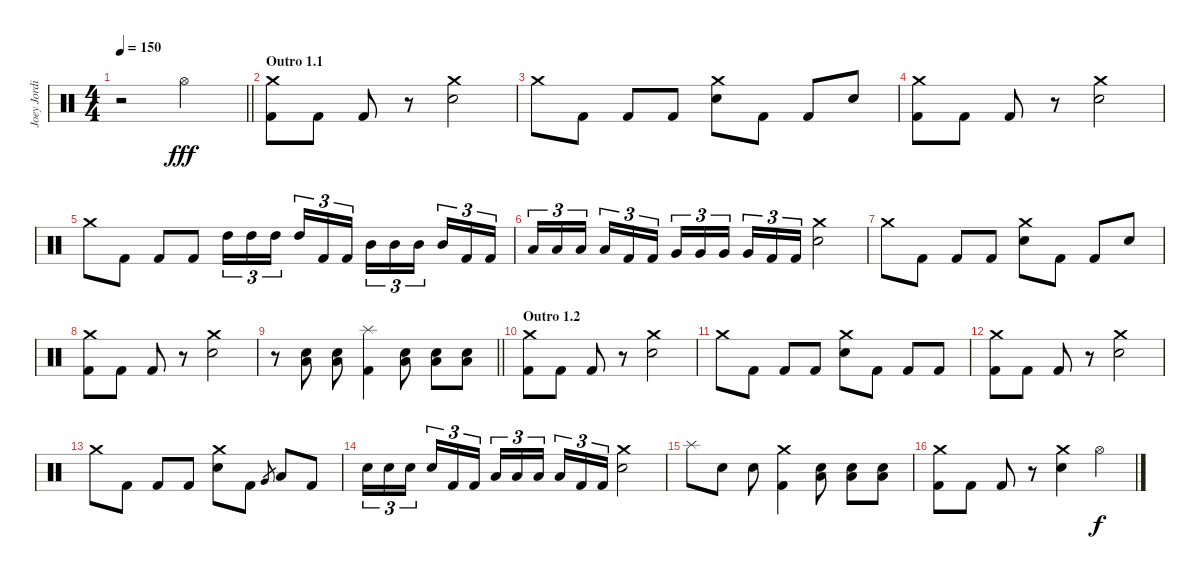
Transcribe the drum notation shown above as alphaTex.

\track ("Joey Jordison" "Joey Jordi") {instrument percussion}
\staff {score}
\articulation defaults
\ts (4 4)
\tempo 150
\clef neutral
\barLineRight lightlight
\ks c
r.2{dy fff} "Hi-Hat (open)".2 |
\section ("" "Outro 1.1")
("Crash medium (hit)" "Kick (hit) 2").8 "Kick (hit) 2".8 "Kick (hit) 2".8 r.8 ("Crash medium (hit)" "Electric Snare (hit)").2 |
"Crash medium (hit)".8 "Kick (hit) 2".8 "Kick (hit) 2".8 "Kick (hit) 2".8 ("Crash medium (hit)" "Electric Snare (hit)").8 "Kick (hit) 2".8 "Kick (hit) 2".8 "Electric Snare (hit)".8 |
("Crash medium (hit)" "Kick (hit) 2").8 "Kick (hit) 2".8 "Kick (hit) 2".8 r.8 ("Crash medium (hit)" "Electric Snare (hit)").2 |
"Crash medium (hit)".8 "Kick (hit) 2".8 "Kick (hit) 2".8 "Kick (hit) 2".8 "High Tom (hit)".16{tu (3 2)} "High Tom (hit)".16{tu (3 2)} "High Tom (hit)".16{tu (3 2) beam splitsecondary} "High Tom (hit)".16{tu (3 2)} "Kick (hit) 2".16{tu (3 2)} "Kick (hit) 2".16{tu (3 2)} "Mid Tom (hit)".16{tu (3 2)} "Mid Tom (hit)".16{tu (3 2)} "Mid Tom (hit)".16{tu (3 2) beam splitsecondary} "Mid Tom (hit)".16{tu (3 2)} "Kick (hit) 2".16{tu (3 2)} "Kick (hit) 2".16{tu (3 2)} |
"Low Tom (hit)".16{tu (3 2)} "Low Tom (hit)".16{tu (3 2)} "Low Tom (hit)".16{tu (3 2) beam splitsecondary} "Low Tom (hit)".16{tu (3 2)} "Kick (hit) 2".16{tu (3 2)} "Kick (hit) 2".16{tu (3 2)} "Very Low Tom (hit)".16{tu (3 2)} "Very Low Tom (hit)".16{tu (3 2)} "Very Low Tom (hit)".16{tu (3 2) beam splitsecondary} "Very Low Tom (hit)".16{tu (3 2)} "Kick (hit) 2".16{tu (3 2)} "Kick (hit) 2".16{tu (3 2)} ("Crash medium (hit)" "Electric Snare (hit)").2 |
"Crash medium (hit)".8 "Kick (hit) 2".8 "Kick (hit) 2".8 "Kick (hit) 2".8 ("Crash medium (hit)" "Electric Snare (hit)").8 "Kick (hit) 2".8 "Kick (hit) 2".8 "Electric Snare (hit)".8 |
("Crash medium (hit)" "Kick (hit) 2").8 "Kick (hit) 2".8 "Kick (hit) 2".8 r.8 ("Crash medium (hit)" "Electric Snare (hit)").2 |
\barLineRight lightlight
r.8 ("Electric Snare (hit)" "Low Floor Tom (hit)").8 ("Electric Snare (hit)" "Low Floor Tom (hit)").8 ("Splash (hit)" "Kick (hit) 2").4 ("Electric Snare (hit)" "Low Floor Tom (hit)").8 ("Electric Snare (hit)" "Low Floor Tom (hit)").8 ("Electric Snare (hit)" "Low Floor Tom (hit)").8 |
\section ("" "Outro 1.2")
("Crash medium (hit)" "Kick (hit) 2").8 "Kick (hit) 2".8 "Kick (hit) 2".8 r.8 ("Crash medium (hit)" "Electric Snare (hit)").2 |
"Crash medium (hit)".8 "Kick (hit) 2".8 "Kick (hit) 2".8 "Kick (hit) 2".8 ("Crash medium (hit)" "Electric Snare (hit)").8 "Kick (hit) 2".8 "Kick (hit) 2".8 "Kick (hit) 2".8 |
("Crash medium (hit)" "Kick (hit) 2").8 "Kick (hit) 2".8 "Kick (hit) 2".8 r.8 ("Crash medium (hit)" "Electric Snare (hit)").2 |
"Crash medium (hit)".8 "Kick (hit) 2".8 "Kick (hit) 2".8 "Kick (hit) 2".8 ("Crash medium (hit)" "Electric Snare (hit)").8 "Kick (hit) 2".8 "Very Low Tom (hit)".8{gr} "Low Floor Tom (hit)".8 "Kick (hit) 2".8 |
"Electric Snare (hit)".16{tu (3 2)} "Electric Snare (hit)".16{tu (3 2)} "Electric Snare (hit)".16{tu (3 2) beam splitsecondary} "Electric Snare (hit)".16{tu (3 2)} "Kick (hit) 2".16{tu (3 2)} "Kick (hit) 2".16{tu (3 2)} "Low Tom (hit)".16{tu (3 2)} "Low Tom (hit)".16{tu (3 2)} "Low Tom (hit)".16{tu (3 2) beam splitsecondary} "Low Tom (hit)".16{tu (3 2)} "Kick (hit) 2".16{tu (3 2)} "Kick (hit) 2".16{tu (3 2)} ("Crash medium (hit)" "Electric Snare (hit)").2 |
"Splash (hit)".8 "Electric Snare (hit)".8 "Electric Snare (hit)".8 ("Crash medium (hit)" "Kick (hit) 2").4 ("Electric Snare (hit)" "Low Floor Tom (hit)").8 ("Electric Snare (hit)" "Low Floor Tom (hit)").8 ("Electric Snare (hit)" "Low Floor Tom (hit)").8 |
("Crash medium (hit)" "Kick (hit) 2").8 "Kick (hit) 2".8 "Kick (hit) 2".8 r.8 ("Crash medium (hit)" "Electric Snare (hit)").4 "Hi-Hat (open)".4{dy f}
